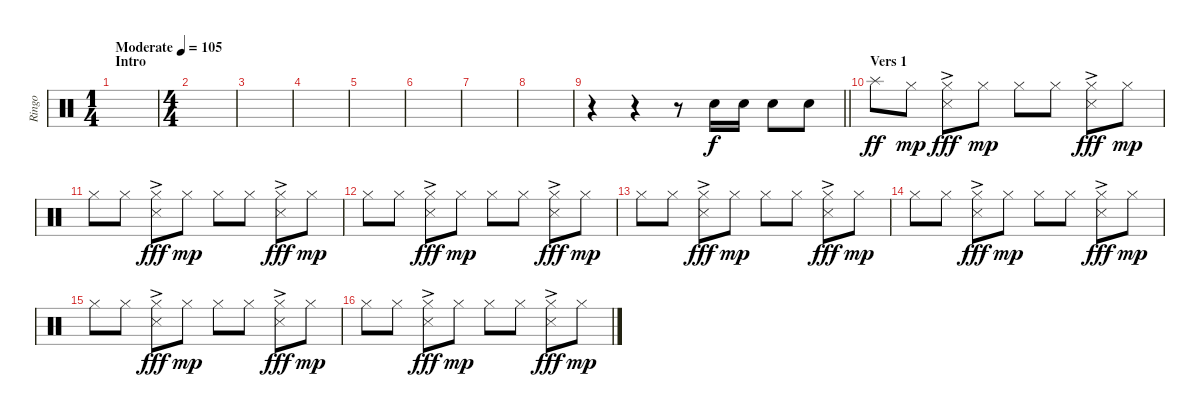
\track ("Ringo" "Ringo") {instrument percussion}
\staff {score}
\articulation defaults
\ts (1 4)
\section ("" "Intro")
\tempo (105 "Moderate")
\clef neutral
\ks c
|
\ts (4 4)
|
|
|
|
|
|
|
\barLineRight lightlight
r.4 r.4 r.8 "Electric Snare (hit)".16 "Electric Snare (hit)".16 "Electric Snare (hit)".8 "Electric Snare (hit)".8 |
\section ("" "Vers 1")
"Splash (hit)".8{dy ff} "Hi-Hat (closed)".8{dy mp} ("Hi-Hat (closed)" "Metronome (hit)"{ac}).8{dy fff} "Hi-Hat (closed)".8{dy mp} "Hi-Hat (closed)".8 "Hi-Hat (closed)".8 ("Hi-Hat (closed)" "Metronome (hit)"{ac}).8{dy fff} "Hi-Hat (closed)".8{dy mp} |
"Hi-Hat (closed)".8 "Hi-Hat (closed)".8 ("Hi-Hat (closed)" "Metronome (hit)"{ac}).8{dy fff} "Hi-Hat (closed)".8{dy mp} "Hi-Hat (closed)".8 "Hi-Hat (closed)".8 ("Hi-Hat (closed)" "Metronome (hit)"{ac}).8{dy fff} "Hi-Hat (closed)".8{dy mp} |
"Hi-Hat (closed)".8 "Hi-Hat (closed)".8 ("Hi-Hat (closed)" "Metronome (hit)"{ac}).8{dy fff} "Hi-Hat (closed)".8{dy mp} "Hi-Hat (closed)".8 "Hi-Hat (closed)".8 ("Hi-Hat (closed)" "Metronome (hit)"{ac}).8{dy fff} "Hi-Hat (closed)".8{dy mp} |
"Hi-Hat (closed)".8 "Hi-Hat (closed)".8 ("Hi-Hat (closed)" "Metronome (hit)"{ac}).8{dy fff} "Hi-Hat (closed)".8{dy mp} "Hi-Hat (closed)".8 "Hi-Hat (closed)".8 ("Hi-Hat (closed)" "Metronome (hit)"{ac}).8{dy fff} "Hi-Hat (closed)".8{dy mp} |
"Hi-Hat (closed)".8 "Hi-Hat (closed)".8 ("Hi-Hat (closed)" "Metronome (hit)"{ac}).8{dy fff} "Hi-Hat (closed)".8{dy mp} "Hi-Hat (closed)".8 "Hi-Hat (closed)".8 ("Hi-Hat (closed)" "Metronome (hit)"{ac}).8{dy fff} "Hi-Hat (closed)".8{dy mp} |
"Hi-Hat (closed)".8 "Hi-Hat (closed)".8 ("Hi-Hat (closed)" "Metronome (hit)"{ac}).8{dy fff} "Hi-Hat (closed)".8{dy mp} "Hi-Hat (closed)".8 "Hi-Hat (closed)".8 ("Hi-Hat (closed)" "Metronome (hit)"{ac}).8{dy fff} "Hi-Hat (closed)".8{dy mp} |
"Hi-Hat (closed)".8 "Hi-Hat (closed)".8 ("Hi-Hat (closed)" "Metronome (hit)"{ac}).8{dy fff} "Hi-Hat (closed)".8{dy mp} "Hi-Hat (closed)".8 "Hi-Hat (closed)".8 ("Hi-Hat (closed)" "Metronome (hit)"{ac}).8{dy fff} "Hi-Hat (closed)".8{dy mp}
